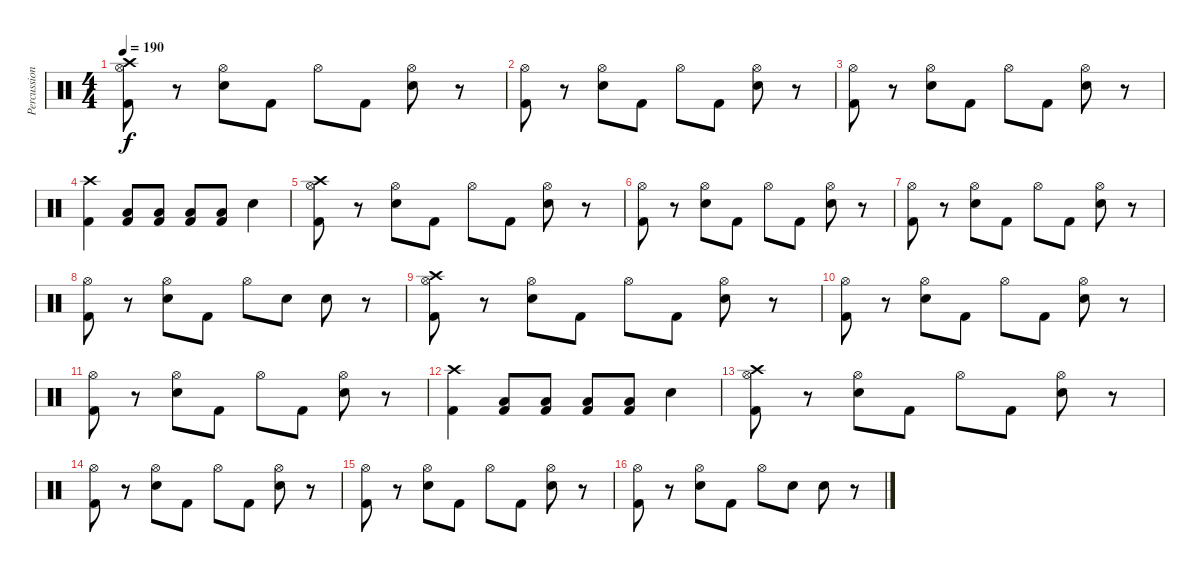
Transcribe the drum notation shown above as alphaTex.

\track ("Percussioni" "Percussion") {instrument percussion}
\staff {score}
\articulation defaults
\ts (4 4)
\tempo 190
\clef neutral
\ks c
("Hi-Hat (open)" "Crash high (hit)" "Kick (hit) 2").8{dy f} r.8 ("Hi-Hat (open)" "Snare (hit) 2").8 "Kick (hit) 2".8 "Hi-Hat (open)".8 "Kick (hit) 2".8 ("Hi-Hat (open)" "Snare (hit) 2").8 r.8 |
("Hi-Hat (open)" "Kick (hit) 2").8 r.8 ("Hi-Hat (open)" "Snare (hit) 2").8 "Kick (hit) 2".8 "Hi-Hat (open)".8 "Kick (hit) 2".8 ("Hi-Hat (open)" "Snare (hit) 2").8 r.8 |
("Hi-Hat (open)" "Kick (hit) 2").8 r.8 ("Hi-Hat (open)" "Snare (hit) 2").8 "Kick (hit) 2".8 "Hi-Hat (open)".8 "Kick (hit) 2".8 ("Hi-Hat (open)" "Snare (hit) 2").8 r.8 |
("Crash high (hit)" "Kick (hit) 2").4 ("Kick (hit) 2" "Low Tom (hit)").8 ("Kick (hit) 2" "Low Tom (hit)").8 ("Kick (hit) 2" "Low Tom (hit)").8 ("Kick (hit) 2" "Low Tom (hit)").8 "Snare (hit) 2".4 |
("Hi-Hat (open)" "Crash high (hit)" "Kick (hit) 2").8 r.8 ("Hi-Hat (open)" "Snare (hit) 2").8 "Kick (hit) 2".8 "Hi-Hat (open)".8 "Kick (hit) 2".8 ("Hi-Hat (open)" "Snare (hit) 2").8 r.8 |
("Hi-Hat (open)" "Kick (hit) 2").8 r.8 ("Hi-Hat (open)" "Snare (hit) 2").8 "Kick (hit) 2".8 "Hi-Hat (open)".8 "Kick (hit) 2".8 ("Hi-Hat (open)" "Snare (hit) 2").8 r.8 |
("Hi-Hat (open)" "Kick (hit) 2").8 r.8 ("Hi-Hat (open)" "Snare (hit) 2").8 "Kick (hit) 2".8 "Hi-Hat (open)".8 "Kick (hit) 2".8 ("Hi-Hat (open)" "Snare (hit) 2").8 r.8 |
("Hi-Hat (open)" "Kick (hit) 2").8 r.8 ("Hi-Hat (open)" "Snare (hit) 2").8 "Kick (hit) 2".8 "Hi-Hat (open)".8 "Snare (hit) 2".8 "Snare (hit) 2".8 r.8 |
("Hi-Hat (open)" "Crash high (hit)" "Kick (hit) 2").8 r.8 ("Hi-Hat (open)" "Snare (hit) 2").8 "Kick (hit) 2".8 "Hi-Hat (open)".8 "Kick (hit) 2".8 ("Hi-Hat (open)" "Snare (hit) 2").8 r.8 |
("Hi-Hat (open)" "Kick (hit) 2").8 r.8 ("Hi-Hat (open)" "Snare (hit) 2").8 "Kick (hit) 2".8 "Hi-Hat (open)".8 "Kick (hit) 2".8 ("Hi-Hat (open)" "Snare (hit) 2").8 r.8 |
("Hi-Hat (open)" "Kick (hit) 2").8 r.8 ("Hi-Hat (open)" "Snare (hit) 2").8 "Kick (hit) 2".8 "Hi-Hat (open)".8 "Kick (hit) 2".8 ("Hi-Hat (open)" "Snare (hit) 2").8 r.8 |
("Crash high (hit)" "Kick (hit) 2").4 ("Kick (hit) 2" "Low Tom (hit)").8 ("Kick (hit) 2" "Low Tom (hit)").8 ("Kick (hit) 2" "Low Tom (hit)").8 ("Kick (hit) 2" "Low Tom (hit)").8 "Snare (hit) 2".4 |
("Hi-Hat (open)" "Crash high (hit)" "Kick (hit) 2").8 r.8 ("Hi-Hat (open)" "Snare (hit) 2").8 "Kick (hit) 2".8 "Hi-Hat (open)".8 "Kick (hit) 2".8 ("Hi-Hat (open)" "Snare (hit) 2").8 r.8 |
("Hi-Hat (open)" "Kick (hit) 2").8 r.8 ("Hi-Hat (open)" "Snare (hit) 2").8 "Kick (hit) 2".8 "Hi-Hat (open)".8 "Kick (hit) 2".8 ("Hi-Hat (open)" "Snare (hit) 2").8 r.8 |
("Hi-Hat (open)" "Kick (hit) 2").8 r.8 ("Hi-Hat (open)" "Snare (hit) 2").8 "Kick (hit) 2".8 "Hi-Hat (open)".8 "Kick (hit) 2".8 ("Hi-Hat (open)" "Snare (hit) 2").8 r.8 |
("Hi-Hat (open)" "Kick (hit) 2").8 r.8 ("Hi-Hat (open)" "Snare (hit) 2").8 "Kick (hit) 2".8 "Hi-Hat (open)".8 "Snare (hit) 2".8 "Snare (hit) 2".8 r.8
